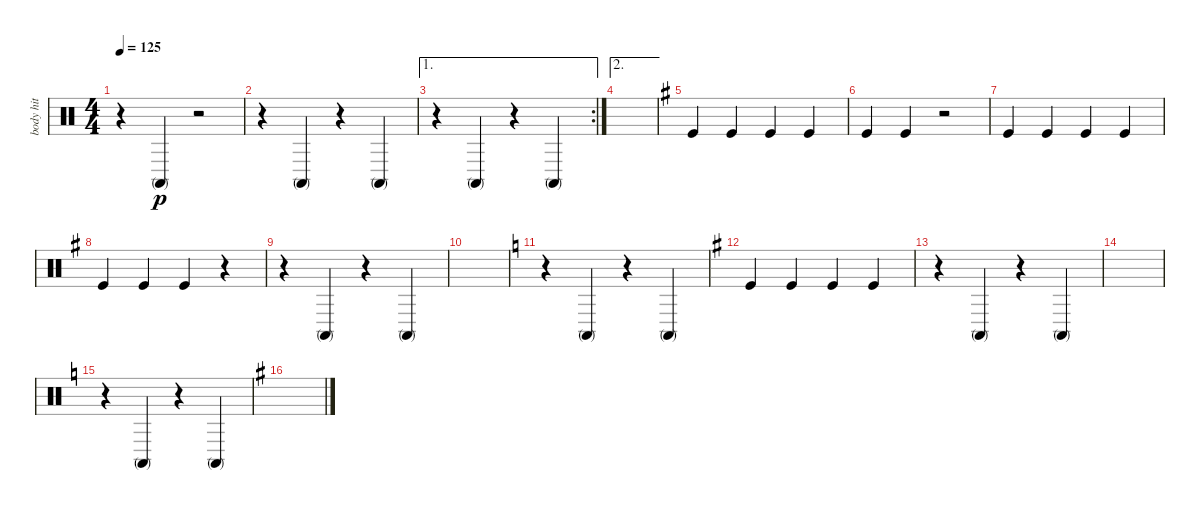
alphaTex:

\track ("body hit" "body hit") {instrument percussion}
\staff {score}
\articulation defaults
\ts (4 4)
\tempo 125
\clef neutral
\ks c
r.4{dy p} "Conga high (mute)".4 r.2 |
r.4 "Conga high (mute)".4 r.4 "Conga high (mute)".4 |
\ae 1
\rc 2
r.4 "Conga high (mute)".4 r.4 "Conga high (mute)".4 |
\ae 2
|
\ks g "Kick (hit)".4 "Kick (hit)".4 "Kick (hit)".4 "Kick (hit)".4
|
"Kick (hit)".4 "Kick (hit)".4 r.2 |
"Kick (hit)".4 "Kick (hit)".4 "Kick (hit)".4 "Kick (hit)".4 |
"Kick (hit)".4 "Kick (hit)".4 "Kick (hit)".4 r.4 |
r.4 "Conga high (mute)".4 r.4 "Conga high (mute)".4 |
|
\ks c
r.4 "Conga high (mute)".4 r.4 "Conga high (mute)".4 |
\ks g "Kick (hit)".4 "Kick (hit)".4 "Kick (hit)".4 "Kick (hit)".4
|
r.4 "Conga high (mute)".4 r.4 "Conga high (mute)".4 |
|
\ks c
r.4 "Conga high (mute)".4 r.4 "Conga high (mute)".4 |
\ks g
